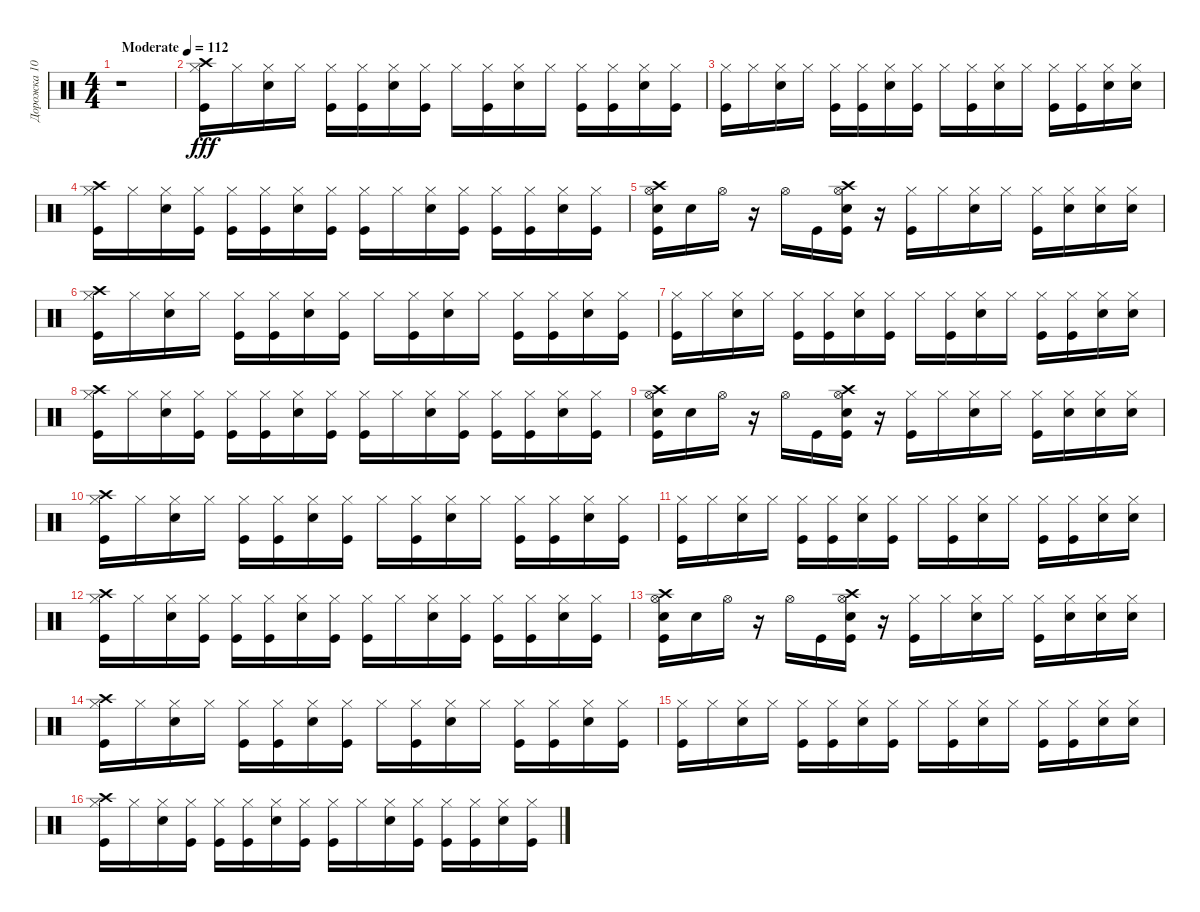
\track ("Дорожка 10" "Дорожка 10") {instrument percussion}
\staff {score}
\articulation defaults
\ts (4 4)
\tempo (112 "Moderate")
\clef neutral
\ks c
r.1{dy fff} |
("Crash high (hit)" "Hi-Hat (closed)" "Kick (hit)").16 "Hi-Hat (closed)".16 ("Electric Snare (hit)" "Hi-Hat (closed)").16 "Hi-Hat (closed)".16 ("Kick (hit)" "Hi-Hat (closed)").16 ("Hi-Hat (closed)" "Kick (hit)").16 ("Electric Snare (hit)" "Hi-Hat (closed)").16 ("Kick (hit)" "Hi-Hat (closed)").16 "Hi-Hat (closed)".16 ("Hi-Hat (closed)" "Kick (hit)").16 ("Hi-Hat (closed)" "Electric Snare (hit)").16 "Hi-Hat (closed)".16 ("Kick (hit)" "Hi-Hat (closed)").16 ("Kick (hit)" "Hi-Hat (closed)").16 ("Electric Snare (hit)" "Hi-Hat (closed)").16 ("Kick (hit)" "Hi-Hat (closed)").16 |
("Kick (hit)" "Hi-Hat (closed)").16 "Hi-Hat (closed)".16 ("Electric Snare (hit)" "Hi-Hat (closed)").16 "Hi-Hat (closed)".16 ("Hi-Hat (closed)" "Kick (hit)").16 ("Kick (hit)" "Hi-Hat (closed)").16 ("Hi-Hat (closed)" "Electric Snare (hit)").16 ("Hi-Hat (closed)" "Kick (hit)").16 "Hi-Hat (closed)".16 ("Hi-Hat (closed)" "Kick (hit)").16 ("Hi-Hat (closed)" "Electric Snare (hit)").16 "Hi-Hat (closed)".16 ("Kick (hit)" "Hi-Hat (closed)").16 ("Kick (hit)" "Hi-Hat (closed)").16 ("Electric Snare (hit)" "Hi-Hat (closed)").16 ("Electric Snare (hit)" "Hi-Hat (closed)").16 |
("Kick (hit)" "Hi-Hat (closed)" "Crash high (hit)").16 "Hi-Hat (closed)".16 ("Hi-Hat (closed)" "Electric Snare (hit)").16 ("Kick (hit)" "Hi-Hat (closed)").16 ("Kick (hit)" "Hi-Hat (closed)").16 ("Hi-Hat (closed)" "Kick (hit)").16 ("Hi-Hat (closed)" "Electric Snare (hit)").16 ("Hi-Hat (closed)" "Kick (hit)").16 ("Hi-Hat (closed)" "Kick (hit)").16 "Hi-Hat (closed)".16 ("Hi-Hat (closed)" "Electric Snare (hit)").16 ("Hi-Hat (closed)" "Kick (hit)").16 ("Kick (hit)" "Hi-Hat (closed)").16 ("Kick (hit)" "Hi-Hat (closed)").16 ("Hi-Hat (closed)" "Electric Snare (hit)").16 ("Kick (hit)" "Hi-Hat (closed)").16 |
("Kick (hit)" "Electric Snare (hit)" "Crash high (hit)" "Hi-Hat (open)").16 "Electric Snare (hit)".16 "Hi-Hat (open)".16 r.16 "Hi-Hat (open)".16 "Kick (hit)".16 ("Crash high (hit)" "Electric Snare (hit)" "Kick (hit)" "Hi-Hat (open)").16 r.16 ("Kick (hit)" "Hi-Hat (closed)").16 "Hi-Hat (closed)".16 ("Electric Snare (hit)" "Hi-Hat (closed)").16 "Hi-Hat (closed)".16 ("Hi-Hat (closed)" "Kick (hit)").16 ("Electric Snare (hit)" "Hi-Hat (closed)").16 ("Electric Snare (hit)" "Hi-Hat (closed)").16 ("Electric Snare (hit)" "Hi-Hat (closed)").16 |
("Crash high (hit)" "Hi-Hat (closed)" "Kick (hit)").16 "Hi-Hat (closed)".16 ("Electric Snare (hit)" "Hi-Hat (closed)").16 "Hi-Hat (closed)".16 ("Kick (hit)" "Hi-Hat (closed)").16 ("Hi-Hat (closed)" "Kick (hit)").16 ("Electric Snare (hit)" "Hi-Hat (closed)").16 ("Kick (hit)" "Hi-Hat (closed)").16 "Hi-Hat (closed)".16 ("Hi-Hat (closed)" "Kick (hit)").16 ("Hi-Hat (closed)" "Electric Snare (hit)").16 "Hi-Hat (closed)".16 ("Kick (hit)" "Hi-Hat (closed)").16 ("Kick (hit)" "Hi-Hat (closed)").16 ("Electric Snare (hit)" "Hi-Hat (closed)").16 ("Kick (hit)" "Hi-Hat (closed)").16 |
("Kick (hit)" "Hi-Hat (closed)").16 "Hi-Hat (closed)".16 ("Electric Snare (hit)" "Hi-Hat (closed)").16 "Hi-Hat (closed)".16 ("Hi-Hat (closed)" "Kick (hit)").16 ("Kick (hit)" "Hi-Hat (closed)").16 ("Hi-Hat (closed)" "Electric Snare (hit)").16 ("Hi-Hat (closed)" "Kick (hit)").16 "Hi-Hat (closed)".16 ("Hi-Hat (closed)" "Kick (hit)").16 ("Hi-Hat (closed)" "Electric Snare (hit)").16 "Hi-Hat (closed)".16 ("Kick (hit)" "Hi-Hat (closed)").16 ("Kick (hit)" "Hi-Hat (closed)").16 ("Electric Snare (hit)" "Hi-Hat (closed)").16 ("Electric Snare (hit)" "Hi-Hat (closed)").16 |
("Kick (hit)" "Hi-Hat (closed)" "Crash high (hit)").16 "Hi-Hat (closed)".16 ("Hi-Hat (closed)" "Electric Snare (hit)").16 ("Kick (hit)" "Hi-Hat (closed)").16 ("Kick (hit)" "Hi-Hat (closed)").16 ("Hi-Hat (closed)" "Kick (hit)").16 ("Hi-Hat (closed)" "Electric Snare (hit)").16 ("Hi-Hat (closed)" "Kick (hit)").16 ("Hi-Hat (closed)" "Kick (hit)").16 "Hi-Hat (closed)".16 ("Hi-Hat (closed)" "Electric Snare (hit)").16 ("Hi-Hat (closed)" "Kick (hit)").16 ("Kick (hit)" "Hi-Hat (closed)").16 ("Kick (hit)" "Hi-Hat (closed)").16 ("Hi-Hat (closed)" "Electric Snare (hit)").16 ("Kick (hit)" "Hi-Hat (closed)").16 |
("Kick (hit)" "Electric Snare (hit)" "Crash high (hit)" "Hi-Hat (open)").16 "Electric Snare (hit)".16 "Hi-Hat (open)".16 r.16 "Hi-Hat (open)".16 "Kick (hit)".16 ("Crash high (hit)" "Electric Snare (hit)" "Kick (hit)" "Hi-Hat (open)").16 r.16 ("Kick (hit)" "Hi-Hat (closed)").16 "Hi-Hat (closed)".16 ("Electric Snare (hit)" "Hi-Hat (closed)").16 "Hi-Hat (closed)".16 ("Hi-Hat (closed)" "Kick (hit)").16 ("Electric Snare (hit)" "Hi-Hat (closed)").16 ("Electric Snare (hit)" "Hi-Hat (closed)").16 ("Electric Snare (hit)" "Hi-Hat (closed)").16 |
("Crash high (hit)" "Hi-Hat (closed)" "Kick (hit)").16 "Hi-Hat (closed)".16 ("Electric Snare (hit)" "Hi-Hat (closed)").16 "Hi-Hat (closed)".16 ("Kick (hit)" "Hi-Hat (closed)").16 ("Hi-Hat (closed)" "Kick (hit)").16 ("Electric Snare (hit)" "Hi-Hat (closed)").16 ("Kick (hit)" "Hi-Hat (closed)").16 "Hi-Hat (closed)".16 ("Hi-Hat (closed)" "Kick (hit)").16 ("Hi-Hat (closed)" "Electric Snare (hit)").16 "Hi-Hat (closed)".16 ("Kick (hit)" "Hi-Hat (closed)").16 ("Kick (hit)" "Hi-Hat (closed)").16 ("Electric Snare (hit)" "Hi-Hat (closed)").16 ("Kick (hit)" "Hi-Hat (closed)").16 |
("Kick (hit)" "Hi-Hat (closed)").16 "Hi-Hat (closed)".16 ("Electric Snare (hit)" "Hi-Hat (closed)").16 "Hi-Hat (closed)".16 ("Hi-Hat (closed)" "Kick (hit)").16 ("Kick (hit)" "Hi-Hat (closed)").16 ("Hi-Hat (closed)" "Electric Snare (hit)").16 ("Hi-Hat (closed)" "Kick (hit)").16 "Hi-Hat (closed)".16 ("Hi-Hat (closed)" "Kick (hit)").16 ("Hi-Hat (closed)" "Electric Snare (hit)").16 "Hi-Hat (closed)".16 ("Kick (hit)" "Hi-Hat (closed)").16 ("Kick (hit)" "Hi-Hat (closed)").16 ("Electric Snare (hit)" "Hi-Hat (closed)").16 ("Electric Snare (hit)" "Hi-Hat (closed)").16 |
("Kick (hit)" "Hi-Hat (closed)" "Crash high (hit)").16 "Hi-Hat (closed)".16 ("Hi-Hat (closed)" "Electric Snare (hit)").16 ("Kick (hit)" "Hi-Hat (closed)").16 ("Kick (hit)" "Hi-Hat (closed)").16 ("Hi-Hat (closed)" "Kick (hit)").16 ("Hi-Hat (closed)" "Electric Snare (hit)").16 ("Hi-Hat (closed)" "Kick (hit)").16 ("Hi-Hat (closed)" "Kick (hit)").16 "Hi-Hat (closed)".16 ("Hi-Hat (closed)" "Electric Snare (hit)").16 ("Hi-Hat (closed)" "Kick (hit)").16 ("Kick (hit)" "Hi-Hat (closed)").16 ("Kick (hit)" "Hi-Hat (closed)").16 ("Hi-Hat (closed)" "Electric Snare (hit)").16 ("Kick (hit)" "Hi-Hat (closed)").16 |
("Kick (hit)" "Electric Snare (hit)" "Crash high (hit)" "Hi-Hat (open)").16 "Electric Snare (hit)".16 "Hi-Hat (open)".16 r.16 "Hi-Hat (open)".16 "Kick (hit)".16 ("Crash high (hit)" "Electric Snare (hit)" "Kick (hit)" "Hi-Hat (open)").16 r.16 ("Kick (hit)" "Hi-Hat (closed)").16 "Hi-Hat (closed)".16 ("Electric Snare (hit)" "Hi-Hat (closed)").16 "Hi-Hat (closed)".16 ("Hi-Hat (closed)" "Kick (hit)").16 ("Electric Snare (hit)" "Hi-Hat (closed)").16 ("Electric Snare (hit)" "Hi-Hat (closed)").16 ("Electric Snare (hit)" "Hi-Hat (closed)").16 |
("Crash high (hit)" "Hi-Hat (closed)" "Kick (hit)").16 "Hi-Hat (closed)".16 ("Electric Snare (hit)" "Hi-Hat (closed)").16 "Hi-Hat (closed)".16 ("Kick (hit)" "Hi-Hat (closed)").16 ("Hi-Hat (closed)" "Kick (hit)").16 ("Electric Snare (hit)" "Hi-Hat (closed)").16 ("Kick (hit)" "Hi-Hat (closed)").16 "Hi-Hat (closed)".16 ("Hi-Hat (closed)" "Kick (hit)").16 ("Hi-Hat (closed)" "Electric Snare (hit)").16 "Hi-Hat (closed)".16 ("Kick (hit)" "Hi-Hat (closed)").16 ("Kick (hit)" "Hi-Hat (closed)").16 ("Electric Snare (hit)" "Hi-Hat (closed)").16 ("Kick (hit)" "Hi-Hat (closed)").16 |
("Kick (hit)" "Hi-Hat (closed)").16 "Hi-Hat (closed)".16 ("Electric Snare (hit)" "Hi-Hat (closed)").16 "Hi-Hat (closed)".16 ("Hi-Hat (closed)" "Kick (hit)").16 ("Kick (hit)" "Hi-Hat (closed)").16 ("Hi-Hat (closed)" "Electric Snare (hit)").16 ("Hi-Hat (closed)" "Kick (hit)").16 "Hi-Hat (closed)".16 ("Hi-Hat (closed)" "Kick (hit)").16 ("Hi-Hat (closed)" "Electric Snare (hit)").16 "Hi-Hat (closed)".16 ("Kick (hit)" "Hi-Hat (closed)").16 ("Kick (hit)" "Hi-Hat (closed)").16 ("Electric Snare (hit)" "Hi-Hat (closed)").16 ("Electric Snare (hit)" "Hi-Hat (closed)").16 |
("Kick (hit)" "Hi-Hat (closed)" "Crash high (hit)").16 "Hi-Hat (closed)".16 ("Hi-Hat (closed)" "Electric Snare (hit)").16 ("Kick (hit)" "Hi-Hat (closed)").16 ("Kick (hit)" "Hi-Hat (closed)").16 ("Hi-Hat (closed)" "Kick (hit)").16 ("Hi-Hat (closed)" "Electric Snare (hit)").16 ("Hi-Hat (closed)" "Kick (hit)").16 ("Hi-Hat (closed)" "Kick (hit)").16 "Hi-Hat (closed)".16 ("Hi-Hat (closed)" "Electric Snare (hit)").16 ("Hi-Hat (closed)" "Kick (hit)").16 ("Kick (hit)" "Hi-Hat (closed)").16 ("Kick (hit)" "Hi-Hat (closed)").16 ("Hi-Hat (closed)" "Electric Snare (hit)").16 ("Kick (hit)" "Hi-Hat (closed)").16
